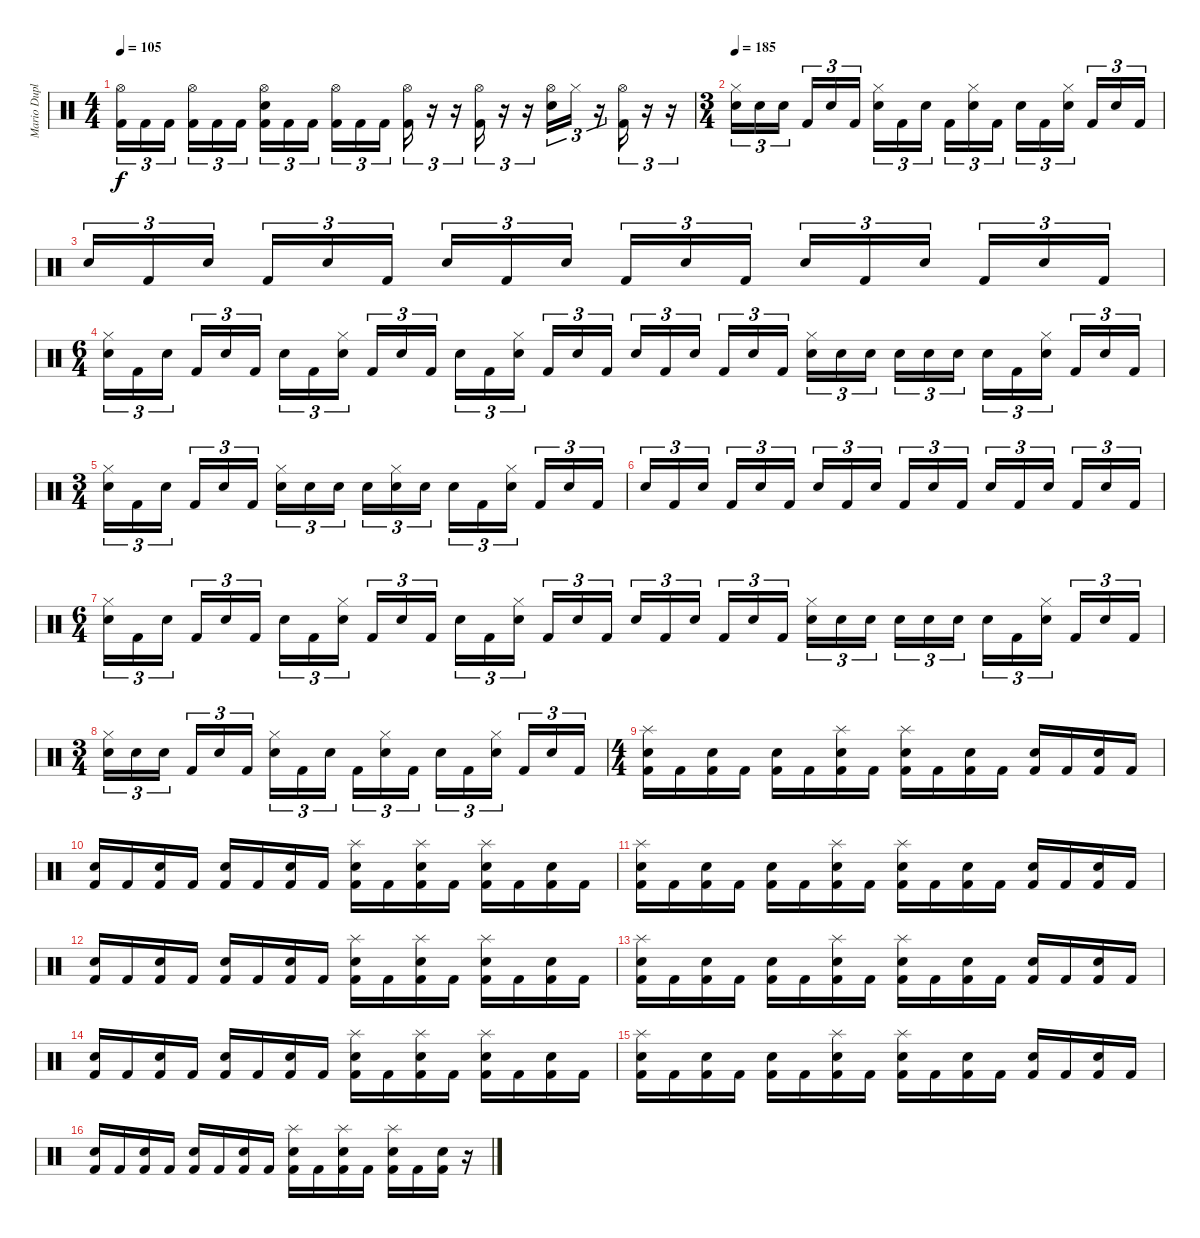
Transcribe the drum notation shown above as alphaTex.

\track ("Mario Duplantier" "Mario Dupl") {instrument percussion}
\staff {score}
\articulation defaults
\ts (4 4)
\tempo 105
\clef neutral
\ks c
("Hi-Hat (open)" "Kick (hit) 2").16{tu (3 2) dy f} "Kick (hit) 2".16{tu (3 2)} "Kick (hit) 2".16{tu (3 2) beam splitsecondary} ("Hi-Hat (open)" "Kick (hit) 2").16{tu (3 2)} "Kick (hit) 2".16{tu (3 2)} "Kick (hit) 2".16{tu (3 2)} ("Hi-Hat (open)" "Electric Snare (hit)" "Kick (hit) 2").16{tu (3 2)} "Kick (hit) 2".16{tu (3 2)} "Kick (hit) 2".16{tu (3 2) beam splitsecondary} ("Hi-Hat (open)" "Kick (hit) 2").16{tu (3 2)} "Kick (hit) 2".16{tu (3 2)} "Kick (hit) 2".16{tu (3 2)} ("Hi-Hat (open)" "Kick (hit) 2").16{tu (3 2)} r.16{tu (3 2)} r.16{tu (3 2)} ("Hi-Hat (open)" "Kick (hit) 2").16{tu (3 2)} r.16{tu (3 2)} r.16{tu (3 2)} ("Hi-Hat (open)" "Electric Snare (hit)").16{tu (3 2)} "Hi-Hat (closed)".16{tu (3 2)} r.16{tu (3 2)} ("Hi-Hat (open)" "Kick (hit) 2").16{tu (3 2)} r.16{tu (3 2)} r.16{tu (3 2)} |
\ts (3 4)
\tempo 185
("Hi-Hat (closed)" "Electric Snare (hit)").16{tu (3 2)} "Electric Snare (hit)".16{tu (3 2)} "Electric Snare (hit)".16{tu (3 2) beam splitsecondary} "Kick (hit) 2".16{tu (3 2)} "Electric Snare (hit)".16{tu (3 2)} "Kick (hit) 2".16{tu (3 2)} ("Hi-Hat (closed)" "Electric Snare (hit)").16{tu (3 2)} "Kick (hit) 2".16{tu (3 2)} "Electric Snare (hit)".16{tu (3 2) beam splitsecondary} "Kick (hit) 2".16{tu (3 2)} ("Hi-Hat (closed)" "Electric Snare (hit)").16{tu (3 2)} "Kick (hit) 2".16{tu (3 2)} "Electric Snare (hit)".16{tu (3 2)} "Kick (hit) 2".16{tu (3 2)} ("Hi-Hat (closed)" "Electric Snare (hit)").16{tu (3 2) beam splitsecondary} "Kick (hit) 2".16{tu (3 2)} "Electric Snare (hit)".16{tu (3 2)} "Kick (hit) 2".16{tu (3 2)} |
"Electric Snare (hit)".16{tu (3 2)} "Kick (hit) 2".16{tu (3 2)} "Electric Snare (hit)".16{tu (3 2) beam splitsecondary} "Kick (hit) 2".16{tu (3 2)} "Electric Snare (hit)".16{tu (3 2)} "Kick (hit) 2".16{tu (3 2)} "Electric Snare (hit)".16{tu (3 2)} "Kick (hit) 2".16{tu (3 2)} "Electric Snare (hit)".16{tu (3 2) beam splitsecondary} "Kick (hit) 2".16{tu (3 2)} "Electric Snare (hit)".16{tu (3 2)} "Kick (hit) 2".16{tu (3 2)} "Electric Snare (hit)".16{tu (3 2)} "Kick (hit) 2".16{tu (3 2)} "Electric Snare (hit)".16{tu (3 2) beam splitsecondary} "Kick (hit) 2".16{tu (3 2)} "Electric Snare (hit)".16{tu (3 2)} "Kick (hit) 2".16{tu (3 2)} |
\ts (6 4)
("Hi-Hat (closed)" "Electric Snare (hit)").16{tu (3 2)} "Kick (hit) 2".16{tu (3 2)} "Electric Snare (hit)".16{tu (3 2) beam splitsecondary} "Kick (hit) 2".16{tu (3 2)} "Electric Snare (hit)".16{tu (3 2)} "Kick (hit) 2".16{tu (3 2) beam splitsecondary} "Electric Snare (hit)".16{tu (3 2)} "Kick (hit) 2".16{tu (3 2)} ("Hi-Hat (closed)" "Electric Snare (hit)").16{tu (3 2) beam splitsecondary} "Kick (hit) 2".16{tu (3 2)} "Electric Snare (hit)".16{tu (3 2)} "Kick (hit) 2".16{tu (3 2) beam splitsecondary} "Electric Snare (hit)".16{tu (3 2)} "Kick (hit) 2".16{tu (3 2)} ("Hi-Hat (closed)" "Electric Snare (hit)").16{tu (3 2) beam splitsecondary} "Kick (hit) 2".16{tu (3 2)} "Electric Snare (hit)".16{tu (3 2)} "Kick (hit) 2".16{tu (3 2)} "Electric Snare (hit)".16{tu (3 2)} "Kick (hit) 2".16{tu (3 2)} "Electric Snare (hit)".16{tu (3 2) beam splitsecondary} "Kick (hit) 2".16{tu (3 2)} "Electric Snare (hit)".16{tu (3 2)} "Kick (hit) 2".16{tu (3 2) beam splitsecondary} ("Hi-Hat (closed)" "Electric Snare (hit)").16{tu (3 2)} "Electric Snare (hit)".16{tu (3 2)} "Electric Snare (hit)".16{tu (3 2) beam splitsecondary} "Electric Snare (hit)".16{tu (3 2)} "Electric Snare (hit)".16{tu (3 2)} "Electric Snare (hit)".16{tu (3 2) beam splitsecondary} "Electric Snare (hit)".16{tu (3 2)} "Kick (hit) 2".16{tu (3 2)} ("Hi-Hat (closed)" "Electric Snare (hit)").16{tu (3 2) beam splitsecondary} "Kick (hit) 2".16{tu (3 2)} "Electric Snare (hit)".16{tu (3 2)} "Kick (hit) 2".16{tu (3 2)} |
\ts (3 4)
("Hi-Hat (closed)" "Electric Snare (hit)").16{tu (3 2)} "Kick (hit) 2".16{tu (3 2)} "Electric Snare (hit)".16{tu (3 2) beam splitsecondary} "Kick (hit) 2".16{tu (3 2)} "Electric Snare (hit)".16{tu (3 2)} "Kick (hit) 2".16{tu (3 2)} ("Hi-Hat (closed)" "Electric Snare (hit)").16{tu (3 2)} "Electric Snare (hit)".16{tu (3 2)} "Electric Snare (hit)".16{tu (3 2) beam splitsecondary} "Electric Snare (hit)".16{tu (3 2)} ("Hi-Hat (closed)" "Electric Snare (hit)").16{tu (3 2)} "Electric Snare (hit)".16{tu (3 2)} "Electric Snare (hit)".16{tu (3 2)} "Kick (hit) 2".16{tu (3 2)} ("Hi-Hat (closed)" "Electric Snare (hit)").16{tu (3 2) beam splitsecondary} "Kick (hit) 2".16{tu (3 2)} "Electric Snare (hit)".16{tu (3 2)} "Kick (hit) 2".16{tu (3 2)} |
"Electric Snare (hit)".16{tu (3 2)} "Kick (hit) 2".16{tu (3 2)} "Electric Snare (hit)".16{tu (3 2) beam splitsecondary} "Kick (hit) 2".16{tu (3 2)} "Electric Snare (hit)".16{tu (3 2)} "Kick (hit) 2".16{tu (3 2)} "Electric Snare (hit)".16{tu (3 2)} "Kick (hit) 2".16{tu (3 2)} "Electric Snare (hit)".16{tu (3 2) beam splitsecondary} "Kick (hit) 2".16{tu (3 2)} "Electric Snare (hit)".16{tu (3 2)} "Kick (hit) 2".16{tu (3 2)} "Electric Snare (hit)".16{tu (3 2)} "Kick (hit) 2".16{tu (3 2)} "Electric Snare (hit)".16{tu (3 2) beam splitsecondary} "Kick (hit) 2".16{tu (3 2)} "Electric Snare (hit)".16{tu (3 2)} "Kick (hit) 2".16{tu (3 2)} |
\ts (6 4)
("Hi-Hat (closed)" "Electric Snare (hit)").16{tu (3 2)} "Kick (hit) 2".16{tu (3 2)} "Electric Snare (hit)".16{tu (3 2) beam splitsecondary} "Kick (hit) 2".16{tu (3 2)} "Electric Snare (hit)".16{tu (3 2)} "Kick (hit) 2".16{tu (3 2) beam splitsecondary} "Electric Snare (hit)".16{tu (3 2)} "Kick (hit) 2".16{tu (3 2)} ("Hi-Hat (closed)" "Electric Snare (hit)").16{tu (3 2) beam splitsecondary} "Kick (hit) 2".16{tu (3 2)} "Electric Snare (hit)".16{tu (3 2)} "Kick (hit) 2".16{tu (3 2) beam splitsecondary} "Electric Snare (hit)".16{tu (3 2)} "Kick (hit) 2".16{tu (3 2)} ("Hi-Hat (closed)" "Electric Snare (hit)").16{tu (3 2) beam splitsecondary} "Kick (hit) 2".16{tu (3 2)} "Electric Snare (hit)".16{tu (3 2)} "Kick (hit) 2".16{tu (3 2)} "Electric Snare (hit)".16{tu (3 2)} "Kick (hit) 2".16{tu (3 2)} "Electric Snare (hit)".16{tu (3 2) beam splitsecondary} "Kick (hit) 2".16{tu (3 2)} "Electric Snare (hit)".16{tu (3 2)} "Kick (hit) 2".16{tu (3 2) beam splitsecondary} ("Hi-Hat (closed)" "Electric Snare (hit)").16{tu (3 2)} "Electric Snare (hit)".16{tu (3 2)} "Electric Snare (hit)".16{tu (3 2) beam splitsecondary} "Electric Snare (hit)".16{tu (3 2)} "Electric Snare (hit)".16{tu (3 2)} "Electric Snare (hit)".16{tu (3 2) beam splitsecondary} "Electric Snare (hit)".16{tu (3 2)} "Kick (hit) 2".16{tu (3 2)} ("Hi-Hat (closed)" "Electric Snare (hit)").16{tu (3 2) beam splitsecondary} "Kick (hit) 2".16{tu (3 2)} "Electric Snare (hit)".16{tu (3 2)} "Kick (hit) 2".16{tu (3 2)} |
\ts (3 4)
("Hi-Hat (closed)" "Electric Snare (hit)").16{tu (3 2)} "Electric Snare (hit)".16{tu (3 2)} "Electric Snare (hit)".16{tu (3 2) beam splitsecondary} "Kick (hit) 2".16{tu (3 2)} "Electric Snare (hit)".16{tu (3 2)} "Kick (hit) 2".16{tu (3 2)} ("Hi-Hat (closed)" "Electric Snare (hit)").16{tu (3 2)} "Kick (hit) 2".16{tu (3 2)} "Electric Snare (hit)".16{tu (3 2) beam splitsecondary} "Kick (hit) 2".16{tu (3 2)} ("Hi-Hat (closed)" "Electric Snare (hit)").16{tu (3 2)} "Kick (hit) 2".16{tu (3 2)} "Electric Snare (hit)".16{tu (3 2)} "Kick (hit) 2".16{tu (3 2)} ("Hi-Hat (closed)" "Electric Snare (hit)").16{tu (3 2) beam splitsecondary} "Kick (hit) 2".16{tu (3 2)} "Electric Snare (hit)".16{tu (3 2)} "Kick (hit) 2".16{tu (3 2)} |
\ts (4 4)
("Splash (hit)" "Electric Snare (hit)" "Kick (hit) 2").16 "Kick (hit) 2".16 ("Electric Snare (hit)" "Kick (hit) 2").16 "Kick (hit) 2".16 ("Electric Snare (hit)" "Kick (hit) 2").16 "Kick (hit) 2".16 ("Splash (hit)" "Electric Snare (hit)" "Kick (hit) 2").16 "Kick (hit) 2".16 ("Splash (hit)" "Electric Snare (hit)" "Kick (hit) 2").16 "Kick (hit) 2".16 ("Electric Snare (hit)" "Kick (hit) 2").16 "Kick (hit) 2".16 ("Electric Snare (hit)" "Kick (hit) 2").16 "Kick (hit) 2".16 ("Electric Snare (hit)" "Kick (hit) 2").16 "Kick (hit) 2".16 |
("Electric Snare (hit)" "Kick (hit) 2").16 "Kick (hit) 2".16 ("Electric Snare (hit)" "Kick (hit) 2").16 "Kick (hit) 2".16 ("Electric Snare (hit)" "Kick (hit) 2").16 "Kick (hit) 2".16 ("Electric Snare (hit)" "Kick (hit) 2").16 "Kick (hit) 2".16 ("Splash (hit)" "Electric Snare (hit)" "Kick (hit) 2").16 "Kick (hit) 2".16 ("Splash (hit)" "Electric Snare (hit)" "Kick (hit) 2").16 "Kick (hit) 2".16 ("Splash (hit)" "Electric Snare (hit)" "Kick (hit) 2").16 "Kick (hit) 2".16 ("Electric Snare (hit)" "Kick (hit) 2").16 "Kick (hit) 2".16 |
("Splash (hit)" "Electric Snare (hit)" "Kick (hit) 2").16 "Kick (hit) 2".16 ("Electric Snare (hit)" "Kick (hit) 2").16 "Kick (hit) 2".16 ("Electric Snare (hit)" "Kick (hit) 2").16 "Kick (hit) 2".16 ("Splash (hit)" "Electric Snare (hit)" "Kick (hit) 2").16 "Kick (hit) 2".16 ("Splash (hit)" "Electric Snare (hit)" "Kick (hit) 2").16 "Kick (hit) 2".16 ("Electric Snare (hit)" "Kick (hit) 2").16 "Kick (hit) 2".16 ("Electric Snare (hit)" "Kick (hit) 2").16 "Kick (hit) 2".16 ("Electric Snare (hit)" "Kick (hit) 2").16 "Kick (hit) 2".16 |
("Electric Snare (hit)" "Kick (hit) 2").16 "Kick (hit) 2".16 ("Electric Snare (hit)" "Kick (hit) 2").16 "Kick (hit) 2".16 ("Electric Snare (hit)" "Kick (hit) 2").16 "Kick (hit) 2".16 ("Electric Snare (hit)" "Kick (hit) 2").16 "Kick (hit) 2".16 ("Splash (hit)" "Electric Snare (hit)" "Kick (hit) 2").16 "Kick (hit) 2".16 ("Splash (hit)" "Electric Snare (hit)" "Kick (hit) 2").16 "Kick (hit) 2".16 ("Splash (hit)" "Electric Snare (hit)" "Kick (hit) 2").16 "Kick (hit) 2".16 ("Electric Snare (hit)" "Kick (hit) 2").16 "Kick (hit) 2".16 |
("Splash (hit)" "Electric Snare (hit)" "Kick (hit) 2").16 "Kick (hit) 2".16 ("Electric Snare (hit)" "Kick (hit) 2").16 "Kick (hit) 2".16 ("Electric Snare (hit)" "Kick (hit) 2").16 "Kick (hit) 2".16 ("Splash (hit)" "Electric Snare (hit)" "Kick (hit) 2").16 "Kick (hit) 2".16 ("Splash (hit)" "Electric Snare (hit)" "Kick (hit) 2").16 "Kick (hit) 2".16 ("Electric Snare (hit)" "Kick (hit) 2").16 "Kick (hit) 2".16 ("Electric Snare (hit)" "Kick (hit) 2").16 "Kick (hit) 2".16 ("Electric Snare (hit)" "Kick (hit) 2").16 "Kick (hit) 2".16 |
("Electric Snare (hit)" "Kick (hit) 2").16 "Kick (hit) 2".16 ("Electric Snare (hit)" "Kick (hit) 2").16 "Kick (hit) 2".16 ("Electric Snare (hit)" "Kick (hit) 2").16 "Kick (hit) 2".16 ("Electric Snare (hit)" "Kick (hit) 2").16 "Kick (hit) 2".16 ("Splash (hit)" "Electric Snare (hit)" "Kick (hit) 2").16 "Kick (hit) 2".16 ("Splash (hit)" "Electric Snare (hit)" "Kick (hit) 2").16 "Kick (hit) 2".16 ("Splash (hit)" "Electric Snare (hit)" "Kick (hit) 2").16 "Kick (hit) 2".16 ("Electric Snare (hit)" "Kick (hit) 2").16 "Kick (hit) 2".16 |
("Splash (hit)" "Electric Snare (hit)" "Kick (hit) 2").16 "Kick (hit) 2".16 ("Electric Snare (hit)" "Kick (hit) 2").16 "Kick (hit) 2".16 ("Electric Snare (hit)" "Kick (hit) 2").16 "Kick (hit) 2".16 ("Splash (hit)" "Electric Snare (hit)" "Kick (hit) 2").16 "Kick (hit) 2".16 ("Splash (hit)" "Electric Snare (hit)" "Kick (hit) 2").16 "Kick (hit) 2".16 ("Electric Snare (hit)" "Kick (hit) 2").16 "Kick (hit) 2".16 ("Electric Snare (hit)" "Kick (hit) 2").16 "Kick (hit) 2".16 ("Electric Snare (hit)" "Kick (hit) 2").16 "Kick (hit) 2".16 |
("Electric Snare (hit)" "Kick (hit) 2").16 "Kick (hit) 2".16 ("Electric Snare (hit)" "Kick (hit) 2").16 "Kick (hit) 2".16 ("Electric Snare (hit)" "Kick (hit) 2").16 "Kick (hit) 2".16 ("Electric Snare (hit)" "Kick (hit) 2").16 "Kick (hit) 2".16 ("Splash (hit)" "Electric Snare (hit)" "Kick (hit) 2").16 "Kick (hit) 2".16 ("Splash (hit)" "Electric Snare (hit)" "Kick (hit) 2").16 "Kick (hit) 2".16 ("Splash (hit)" "Electric Snare (hit)" "Kick (hit) 2").16 "Kick (hit) 2".16 ("Electric Snare (hit)" "Kick (hit) 2").16 r.16
